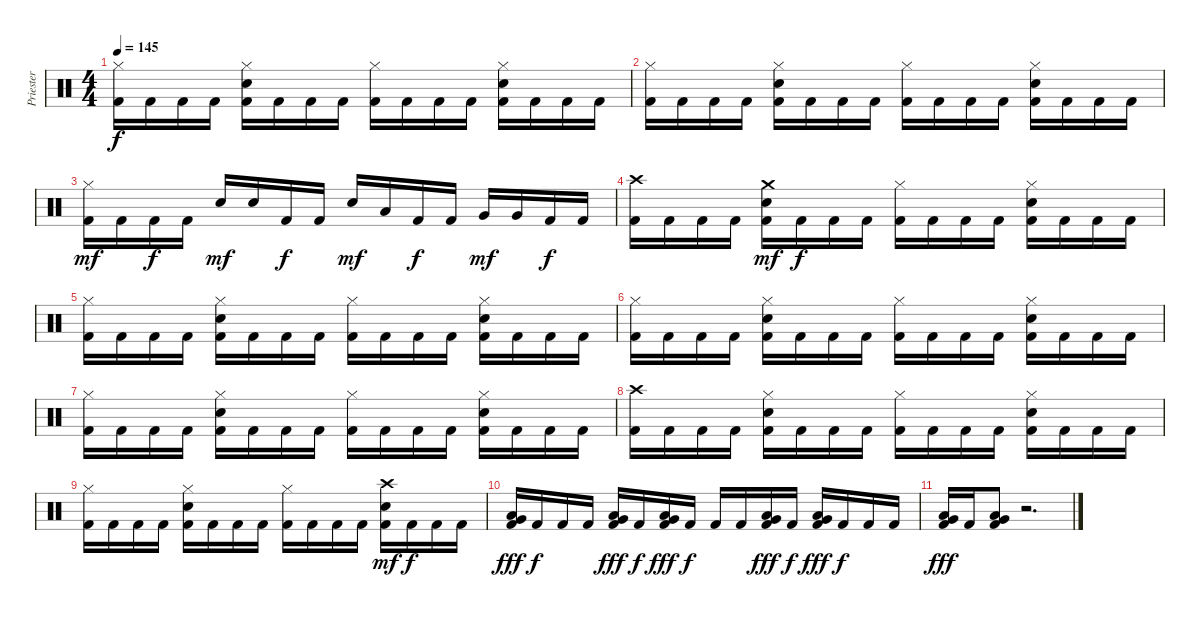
\track ("Priester" "Priester") {instrument percussion}
\staff {score}
\articulation defaults
\ts (4 4)
\tempo 145
\clef neutral
\ks c
("Hi-Hat (closed)" "Kick (hit) 2").16{dy f} "Kick (hit) 2".16 "Kick (hit) 2".16 "Kick (hit) 2".16 ("Hi-Hat (closed)" "Electric Snare (hit)" "Kick (hit) 2").16 "Kick (hit) 2".16 "Kick (hit) 2".16 "Kick (hit) 2".16 ("Hi-Hat (closed)" "Kick (hit) 2").16 "Kick (hit) 2".16 "Kick (hit) 2".16 "Kick (hit) 2".16 ("Hi-Hat (closed)" "Electric Snare (hit)" "Kick (hit) 2").16 "Kick (hit) 2".16 "Kick (hit) 2".16 "Kick (hit) 2".16 |
("Hi-Hat (closed)" "Kick (hit) 2").16 "Kick (hit) 2".16 "Kick (hit) 2".16 "Kick (hit) 2".16 ("Hi-Hat (closed)" "Electric Snare (hit)" "Kick (hit) 2").16 "Kick (hit) 2".16 "Kick (hit) 2".16 "Kick (hit) 2".16 ("Hi-Hat (closed)" "Kick (hit) 2").16 "Kick (hit) 2".16 "Kick (hit) 2".16 "Kick (hit) 2".16 ("Hi-Hat (closed)" "Electric Snare (hit)" "Kick (hit) 2").16 "Kick (hit) 2".16 "Kick (hit) 2".16 "Kick (hit) 2".16 |
("Hi-Hat (closed)" "Kick (hit) 2").16{dy mf} "Kick (hit) 2".16 "Kick (hit) 2".16{dy f} "Kick (hit) 2".16 "Electric Snare (hit)".16{dy mf} "Electric Snare (hit)".16 "Kick (hit) 2".16{dy f} "Kick (hit) 2".16 "Electric Snare (hit)".16{dy mf} "Low Tom (hit)".16 "Kick (hit) 2".16{dy f} "Kick (hit) 2".16 "Very Low Tom (hit)".16{dy mf} "Very Low Tom (hit)".16 "Kick (hit) 2".16{dy f} "Kick (hit) 2".16 |
("Crash high (hit)" "Kick (hit) 2").16 "Kick (hit) 2".16 "Kick (hit) 2".16 "Kick (hit) 2".16 ("Crash medium (hit)" "Electric Snare (hit)" "Kick (hit) 2").16{dy mf} "Kick (hit) 2".16{dy f} "Kick (hit) 2".16 "Kick (hit) 2".16 ("Hi-Hat (closed)" "Kick (hit) 2").16 "Kick (hit) 2".16 "Kick (hit) 2".16 "Kick (hit) 2".16 ("Hi-Hat (closed)" "Electric Snare (hit)" "Kick (hit) 2").16 "Kick (hit) 2".16 "Kick (hit) 2".16 "Kick (hit) 2".16 |
("Hi-Hat (closed)" "Kick (hit) 2").16 "Kick (hit) 2".16 "Kick (hit) 2".16 "Kick (hit) 2".16 ("Hi-Hat (closed)" "Electric Snare (hit)" "Kick (hit) 2").16 "Kick (hit) 2".16 "Kick (hit) 2".16 "Kick (hit) 2".16 ("Hi-Hat (closed)" "Kick (hit) 2").16 "Kick (hit) 2".16 "Kick (hit) 2".16 "Kick (hit) 2".16 ("Hi-Hat (closed)" "Electric Snare (hit)" "Kick (hit) 2").16 "Kick (hit) 2".16 "Kick (hit) 2".16 "Kick (hit) 2".16 |
("Hi-Hat (closed)" "Kick (hit) 2").16 "Kick (hit) 2".16 "Kick (hit) 2".16 "Kick (hit) 2".16 ("Hi-Hat (closed)" "Electric Snare (hit)" "Kick (hit) 2").16 "Kick (hit) 2".16 "Kick (hit) 2".16 "Kick (hit) 2".16 ("Hi-Hat (closed)" "Kick (hit) 2").16 "Kick (hit) 2".16 "Kick (hit) 2".16 "Kick (hit) 2".16 ("Hi-Hat (closed)" "Electric Snare (hit)" "Kick (hit) 2").16 "Kick (hit) 2".16 "Kick (hit) 2".16 "Kick (hit) 2".16 |
("Hi-Hat (closed)" "Kick (hit) 2").16 "Kick (hit) 2".16 "Kick (hit) 2".16 "Kick (hit) 2".16 ("Hi-Hat (closed)" "Electric Snare (hit)" "Kick (hit) 2").16 "Kick (hit) 2".16 "Kick (hit) 2".16 "Kick (hit) 2".16 ("Hi-Hat (closed)" "Kick (hit) 2").16 "Kick (hit) 2".16 "Kick (hit) 2".16 "Kick (hit) 2".16 ("Hi-Hat (closed)" "Electric Snare (hit)" "Kick (hit) 2").16 "Kick (hit) 2".16 "Kick (hit) 2".16 "Kick (hit) 2".16 |
("Crash high (hit)" "Kick (hit) 2").16 "Kick (hit) 2".16 "Kick (hit) 2".16 "Kick (hit) 2".16 ("Hi-Hat (closed)" "Electric Snare (hit)" "Kick (hit) 2").16 "Kick (hit) 2".16 "Kick (hit) 2".16 "Kick (hit) 2".16 ("Hi-Hat (closed)" "Kick (hit) 2").16 "Kick (hit) 2".16 "Kick (hit) 2".16 "Kick (hit) 2".16 ("Hi-Hat (closed)" "Electric Snare (hit)" "Kick (hit) 2").16 "Kick (hit) 2".16 "Kick (hit) 2".16 "Kick (hit) 2".16 |
("Hi-Hat (closed)" "Kick (hit) 2").16 "Kick (hit) 2".16 "Kick (hit) 2".16 "Kick (hit) 2".16 ("Hi-Hat (closed)" "Electric Snare (hit)" "Kick (hit) 2").16 "Kick (hit) 2".16 "Kick (hit) 2".16 "Kick (hit) 2".16 ("Hi-Hat (closed)" "Kick (hit) 2").16 "Kick (hit) 2".16 "Kick (hit) 2".16 "Kick (hit) 2".16 ("Crash high (hit)" "Electric Snare (hit)" "Kick (hit) 2").16{dy mf} "Kick (hit) 2".16{dy f} "Kick (hit) 2".16 "Kick (hit) 2".16 |
("Very Low Tom (hit)" "Low Floor Tom (hit)" "Kick (hit) 2").16{dy fff} "Kick (hit) 2".16{dy f} "Kick (hit) 2".16 "Kick (hit) 2".16 ("Very Low Tom (hit)" "Low Floor Tom (hit)" "Kick (hit) 2").16{dy fff} "Kick (hit) 2".16{dy f} ("Very Low Tom (hit)" "Low Floor Tom (hit)" "Kick (hit) 2").16{dy fff} "Kick (hit) 2".16{dy f} "Kick (hit) 2".16 "Kick (hit) 2".16 ("Very Low Tom (hit)" "Low Floor Tom (hit)" "Kick (hit) 2").16{dy fff} "Kick (hit) 2".16{dy f} ("Very Low Tom (hit)" "Low Floor Tom (hit)" "Kick (hit) 2").16{dy fff} "Kick (hit) 2".16{dy f} "Kick (hit) 2".16 "Kick (hit) 2".16 |
("Very Low Tom (hit)" "Low Floor Tom (hit)" "Kick (hit) 2").16{dy fff} "Kick (hit) 2".16 ("Very Low Tom (hit)" "Low Floor Tom (hit)" "Kick (hit) 2").8 r.2{d}
